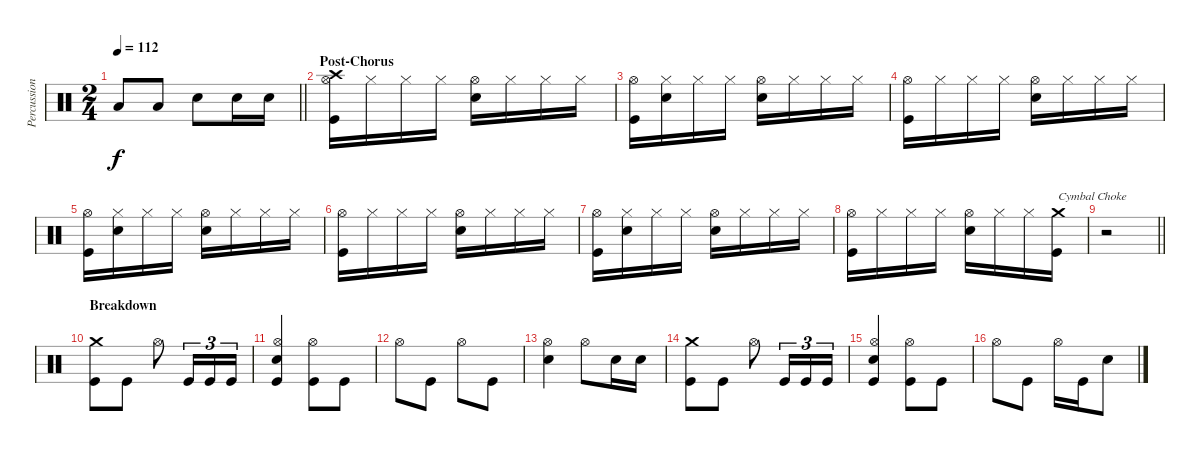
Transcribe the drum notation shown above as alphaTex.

\track ("Percussion" "Percussion") {instrument percussion}
\staff {score}
\articulation defaults
\ts (2 4)
\tempo 112
\clef neutral
\barLineRight lightlight
\ks c "Low Floor Tom (hit)".8{dy f} "Low Floor Tom (hit)".8 "Electric Snare (hit)".8 "Electric Snare (hit)".16 "Electric Snare (hit)".16
|
\section ("" "Post-Chorus")
("Crash high (hit)" "Hi-Hat (open)" "Kick (hit)").16 "Hi-Hat (closed)".16 "Hi-Hat (closed)".16 "Hi-Hat (closed)".16 ("Hi-Hat (open)" "Electric Snare (hit)").16 "Hi-Hat (closed)".16 "Hi-Hat (closed)".16 "Hi-Hat (closed)".16 |
("Hi-Hat (open)" "Kick (hit)").16 ("Hi-Hat (closed)" "Electric Snare (hit)").16 "Hi-Hat (closed)".16 "Hi-Hat (closed)".16 ("Hi-Hat (open)" "Electric Snare (hit)").16 "Hi-Hat (closed)".16 "Hi-Hat (closed)".16 "Hi-Hat (closed)".16 |
("Hi-Hat (open)" "Kick (hit)").16 "Hi-Hat (closed)".16 "Hi-Hat (closed)".16 "Hi-Hat (closed)".16 ("Hi-Hat (open)" "Electric Snare (hit)").16 "Hi-Hat (closed)".16 "Hi-Hat (closed)".16 "Hi-Hat (closed)".16 |
("Hi-Hat (open)" "Kick (hit)").16 ("Hi-Hat (closed)" "Electric Snare (hit)").16 "Hi-Hat (closed)".16 "Hi-Hat (closed)".16 ("Hi-Hat (open)" "Electric Snare (hit)").16 "Hi-Hat (closed)".16 "Hi-Hat (closed)".16 "Hi-Hat (closed)".16 |
("Hi-Hat (open)" "Kick (hit)").16 "Hi-Hat (closed)".16 "Hi-Hat (closed)".16 "Hi-Hat (closed)".16 ("Hi-Hat (open)" "Electric Snare (hit)").16 "Hi-Hat (closed)".16 "Hi-Hat (closed)".16 "Hi-Hat (closed)".16 |
("Hi-Hat (open)" "Kick (hit)").16 ("Hi-Hat (closed)" "Electric Snare (hit)").16 "Hi-Hat (closed)".16 "Hi-Hat (closed)".16 ("Hi-Hat (open)" "Electric Snare (hit)").16 "Hi-Hat (closed)".16 "Hi-Hat (closed)".16 "Hi-Hat (closed)".16 |
("Hi-Hat (open)" "Kick (hit)").16 "Hi-Hat (closed)".16 "Hi-Hat (closed)".16 "Hi-Hat (closed)".16 ("Hi-Hat (open)" "Electric Snare (hit)").16 "Hi-Hat (closed)".16 "Hi-Hat (closed)".16 ("Crash medium (hit)" "Kick (hit)").16{txt "Cymbal Choke"} |
\barLineRight lightlight
r.2{volume 0} |
\section ("" "Breakdown")
("Crash medium (hit)" "Kick (hit)").8{volume 13} "Kick (hit)".8 "Hi-Hat (open)".8 "Kick (hit)".16{tu (3 2)} "Kick (hit)".16{tu (3 2)} "Kick (hit)".16{tu (3 2)} |
("Hi-Hat (open)" "Electric Snare (hit)" "Kick (hit)").4 ("Hi-Hat (open)" "Kick (hit)").8 "Kick (hit)".8 |
"Hi-Hat (open)".8 "Kick (hit)".8 "Hi-Hat (open)".8 "Kick (hit)".8 |
("Hi-Hat (open)" "Electric Snare (hit)").4 "Hi-Hat (open)".8 "Electric Snare (hit)".16 "Electric Snare (hit)".16 |
("Crash medium (hit)" "Kick (hit)").8 "Kick (hit)".8 "Hi-Hat (open)".8 "Kick (hit)".16{tu (3 2)} "Kick (hit)".16{tu (3 2)} "Kick (hit)".16{tu (3 2)} |
("Hi-Hat (open)" "Electric Snare (hit)" "Kick (hit)").4 ("Hi-Hat (open)" "Kick (hit)").8 "Kick (hit)".8 |
"Hi-Hat (open)".8 "Kick (hit)".8 "Hi-Hat (open)".16 "Kick (hit)".16 "Electric Snare (hit)".8
